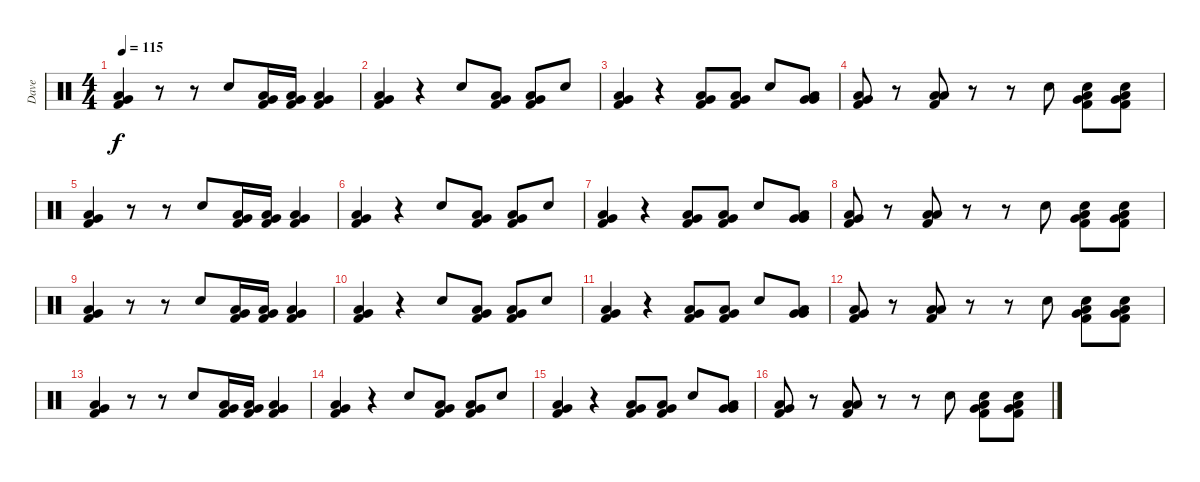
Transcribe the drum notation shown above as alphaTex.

\track ("Dave" "Dave") {instrument percussion}
\staff {score}
\articulation defaults
\ts (4 4)
\tempo 115
\clef neutral
\ks c
("Low Floor Tom (hit)" "Very Low Tom (hit)" "Kick (hit) 2").4{dy f} r.8 r.8 "Electric Snare (hit)".8 ("Very Low Tom (hit)" "Kick (hit) 2" "Low Floor Tom (hit)").16 ("Very Low Tom (hit)" "Kick (hit) 2" "Low Floor Tom (hit)").16 ("Very Low Tom (hit)" "Kick (hit) 2" "Low Floor Tom (hit)").4 |
("Very Low Tom (hit)" "Kick (hit) 2" "Low Floor Tom (hit)").4 r.4 "Electric Snare (hit)".8 ("Low Floor Tom (hit)" "Very Low Tom (hit)" "Kick (hit) 2").8 ("Low Floor Tom (hit)" "Very Low Tom (hit)" "Kick (hit) 2").8 "Electric Snare (hit)".8 |
("Very Low Tom (hit)" "Kick (hit) 2" "Low Floor Tom (hit)").4 r.4 ("Very Low Tom (hit)" "Low Floor Tom (hit)" "Kick (hit) 2").8 ("Very Low Tom (hit)" "Kick (hit) 2" "Low Floor Tom (hit)").8 "Electric Snare (hit)".8 ("Very Low Tom (hit)" "Very Low Tom (hit)" "Low Floor Tom (hit)").8 |
("Low Floor Tom (hit)" "Very Low Tom (hit)" "Kick (hit) 2").8 r.8 ("Low Floor Tom (hit)" "Low Floor Tom (hit)" "Kick (hit) 2").8 r.8 r.8 "Electric Snare (hit)".8 ("Electric Snare (hit)" "Very Low Tom (hit)" "Low Floor Tom (hit)" "Kick (hit) 2").8 ("Electric Snare (hit)" "Very Low Tom (hit)" "Low Floor Tom (hit)" "Kick (hit) 2").8 |
("Low Floor Tom (hit)" "Very Low Tom (hit)" "Kick (hit) 2").4 r.8 r.8 "Electric Snare (hit)".8 ("Very Low Tom (hit)" "Kick (hit) 2" "Low Floor Tom (hit)").16 ("Very Low Tom (hit)" "Kick (hit) 2" "Low Floor Tom (hit)").16 ("Very Low Tom (hit)" "Kick (hit) 2" "Low Floor Tom (hit)").4 |
("Very Low Tom (hit)" "Kick (hit) 2" "Low Floor Tom (hit)").4 r.4 "Electric Snare (hit)".8 ("Low Floor Tom (hit)" "Very Low Tom (hit)" "Kick (hit) 2").8 ("Low Floor Tom (hit)" "Very Low Tom (hit)" "Kick (hit) 2").8 "Electric Snare (hit)".8 |
("Very Low Tom (hit)" "Kick (hit) 2" "Low Floor Tom (hit)").4 r.4 ("Very Low Tom (hit)" "Low Floor Tom (hit)" "Kick (hit) 2").8 ("Very Low Tom (hit)" "Kick (hit) 2" "Low Floor Tom (hit)").8 "Electric Snare (hit)".8 ("Very Low Tom (hit)" "Very Low Tom (hit)" "Low Floor Tom (hit)").8 |
("Low Floor Tom (hit)" "Very Low Tom (hit)" "Kick (hit) 2").8 r.8 ("Low Floor Tom (hit)" "Low Floor Tom (hit)" "Kick (hit) 2").8 r.8 r.8 "Electric Snare (hit)".8 ("Electric Snare (hit)" "Very Low Tom (hit)" "Low Floor Tom (hit)" "Kick (hit) 2").8 ("Electric Snare (hit)" "Very Low Tom (hit)" "Low Floor Tom (hit)" "Kick (hit) 2").8 |
("Low Floor Tom (hit)" "Very Low Tom (hit)" "Kick (hit) 2").4 r.8 r.8 "Electric Snare (hit)".8 ("Very Low Tom (hit)" "Kick (hit) 2" "Low Floor Tom (hit)").16 ("Very Low Tom (hit)" "Kick (hit) 2" "Low Floor Tom (hit)").16 ("Very Low Tom (hit)" "Kick (hit) 2" "Low Floor Tom (hit)").4 |
("Very Low Tom (hit)" "Kick (hit) 2" "Low Floor Tom (hit)").4 r.4 "Electric Snare (hit)".8 ("Low Floor Tom (hit)" "Very Low Tom (hit)" "Kick (hit) 2").8 ("Low Floor Tom (hit)" "Very Low Tom (hit)" "Kick (hit) 2").8 "Electric Snare (hit)".8 |
("Very Low Tom (hit)" "Kick (hit) 2" "Low Floor Tom (hit)").4 r.4 ("Very Low Tom (hit)" "Low Floor Tom (hit)" "Kick (hit) 2").8 ("Very Low Tom (hit)" "Kick (hit) 2" "Low Floor Tom (hit)").8 "Electric Snare (hit)".8 ("Very Low Tom (hit)" "Very Low Tom (hit)" "Low Floor Tom (hit)").8 |
("Low Floor Tom (hit)" "Very Low Tom (hit)" "Kick (hit) 2").8 r.8 ("Low Floor Tom (hit)" "Low Floor Tom (hit)" "Kick (hit) 2").8 r.8 r.8 "Electric Snare (hit)".8 ("Electric Snare (hit)" "Very Low Tom (hit)" "Low Floor Tom (hit)" "Kick (hit) 2").8 ("Electric Snare (hit)" "Very Low Tom (hit)" "Low Floor Tom (hit)" "Kick (hit) 2").8 |
("Low Floor Tom (hit)" "Very Low Tom (hit)" "Kick (hit) 2").4 r.8 r.8 "Electric Snare (hit)".8 ("Very Low Tom (hit)" "Kick (hit) 2" "Low Floor Tom (hit)").16 ("Very Low Tom (hit)" "Kick (hit) 2" "Low Floor Tom (hit)").16 ("Very Low Tom (hit)" "Kick (hit) 2" "Low Floor Tom (hit)").4 |
("Very Low Tom (hit)" "Kick (hit) 2" "Low Floor Tom (hit)").4 r.4 "Electric Snare (hit)".8 ("Low Floor Tom (hit)" "Very Low Tom (hit)" "Kick (hit) 2").8 ("Low Floor Tom (hit)" "Very Low Tom (hit)" "Kick (hit) 2").8 "Electric Snare (hit)".8 |
("Very Low Tom (hit)" "Kick (hit) 2" "Low Floor Tom (hit)").4 r.4 ("Very Low Tom (hit)" "Low Floor Tom (hit)" "Kick (hit) 2").8 ("Very Low Tom (hit)" "Kick (hit) 2" "Low Floor Tom (hit)").8 "Electric Snare (hit)".8 ("Very Low Tom (hit)" "Very Low Tom (hit)" "Low Floor Tom (hit)").8 |
("Low Floor Tom (hit)" "Very Low Tom (hit)" "Kick (hit) 2").8 r.8 ("Low Floor Tom (hit)" "Low Floor Tom (hit)" "Kick (hit) 2").8 r.8 r.8 "Electric Snare (hit)".8 ("Electric Snare (hit)" "Very Low Tom (hit)" "Low Floor Tom (hit)" "Kick (hit) 2").8 ("Electric Snare (hit)" "Very Low Tom (hit)" "Low Floor Tom (hit)" "Kick (hit) 2").8
